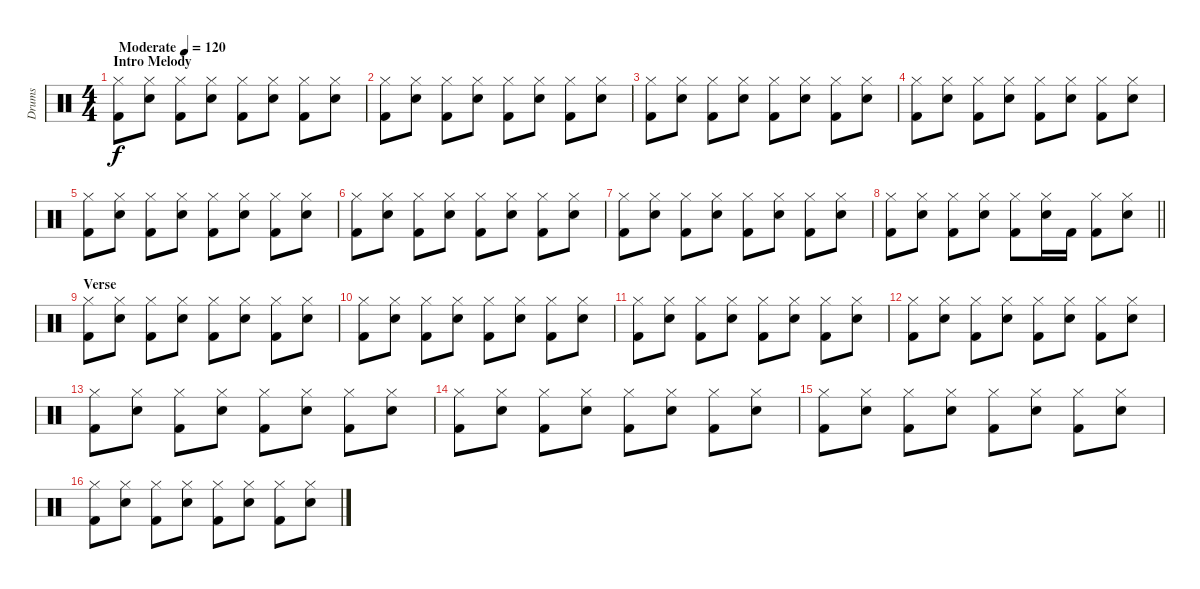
\track ("Drums" "Drums") {instrument percussion}
\staff {score}
\articulation defaults
\ts (4 4)
\section ("" "Intro Melody")
\tempo (120 "Moderate")
\clef neutral
\ks c
("Hi-Hat (closed)" "Kick (hit) 2").8{dy f} ("Hi-Hat (closed)" "Electric Snare (hit)").8 ("Hi-Hat (closed)" "Kick (hit) 2").8 ("Hi-Hat (closed)" "Electric Snare (hit)").8 ("Hi-Hat (closed)" "Kick (hit) 2").8 ("Hi-Hat (closed)" "Electric Snare (hit)").8 ("Hi-Hat (closed)" "Kick (hit) 2").8 ("Hi-Hat (closed)" "Electric Snare (hit)").8 |
("Hi-Hat (closed)" "Kick (hit) 2").8 ("Hi-Hat (closed)" "Electric Snare (hit)").8 ("Hi-Hat (closed)" "Kick (hit) 2").8 ("Hi-Hat (closed)" "Electric Snare (hit)").8 ("Hi-Hat (closed)" "Kick (hit) 2").8 ("Hi-Hat (closed)" "Electric Snare (hit)").8 ("Hi-Hat (closed)" "Kick (hit) 2").8 ("Hi-Hat (closed)" "Electric Snare (hit)").8 |
("Hi-Hat (closed)" "Kick (hit) 2").8 ("Hi-Hat (closed)" "Electric Snare (hit)").8 ("Hi-Hat (closed)" "Kick (hit) 2").8 ("Hi-Hat (closed)" "Electric Snare (hit)").8 ("Hi-Hat (closed)" "Kick (hit) 2").8 ("Hi-Hat (closed)" "Electric Snare (hit)").8 ("Hi-Hat (closed)" "Kick (hit) 2").8 ("Hi-Hat (closed)" "Electric Snare (hit)").8 |
("Hi-Hat (closed)" "Kick (hit) 2").8 ("Hi-Hat (closed)" "Electric Snare (hit)").8 ("Hi-Hat (closed)" "Kick (hit) 2").8 ("Hi-Hat (closed)" "Electric Snare (hit)").8 ("Hi-Hat (closed)" "Kick (hit) 2").8 ("Hi-Hat (closed)" "Electric Snare (hit)").8 ("Hi-Hat (closed)" "Kick (hit) 2").8 ("Hi-Hat (closed)" "Electric Snare (hit)").8 |
("Hi-Hat (closed)" "Kick (hit) 2").8 ("Hi-Hat (closed)" "Electric Snare (hit)").8 ("Hi-Hat (closed)" "Kick (hit) 2").8 ("Hi-Hat (closed)" "Electric Snare (hit)").8 ("Hi-Hat (closed)" "Kick (hit) 2").8 ("Hi-Hat (closed)" "Electric Snare (hit)").8 ("Hi-Hat (closed)" "Kick (hit) 2").8 ("Hi-Hat (closed)" "Electric Snare (hit)").8 |
("Hi-Hat (closed)" "Kick (hit) 2").8 ("Hi-Hat (closed)" "Electric Snare (hit)").8 ("Hi-Hat (closed)" "Kick (hit) 2").8 ("Hi-Hat (closed)" "Electric Snare (hit)").8 ("Hi-Hat (closed)" "Kick (hit) 2").8 ("Hi-Hat (closed)" "Electric Snare (hit)").8 ("Hi-Hat (closed)" "Kick (hit) 2").8 ("Hi-Hat (closed)" "Electric Snare (hit)").8 |
("Hi-Hat (closed)" "Kick (hit) 2").8 ("Hi-Hat (closed)" "Electric Snare (hit)").8 ("Hi-Hat (closed)" "Kick (hit) 2").8 ("Hi-Hat (closed)" "Electric Snare (hit)").8 ("Hi-Hat (closed)" "Kick (hit) 2").8 ("Hi-Hat (closed)" "Electric Snare (hit)").8 ("Hi-Hat (closed)" "Kick (hit) 2").8 ("Hi-Hat (closed)" "Electric Snare (hit)").8 |
\barLineRight lightlight
("Hi-Hat (closed)" "Kick (hit) 2").8 ("Hi-Hat (closed)" "Electric Snare (hit)").8 ("Hi-Hat (closed)" "Kick (hit) 2").8 ("Hi-Hat (closed)" "Electric Snare (hit)").8 ("Hi-Hat (closed)" "Kick (hit) 2").8 ("Hi-Hat (closed)" "Electric Snare (hit)").16 "Kick (hit) 2".16 ("Hi-Hat (closed)" "Kick (hit) 2").8 ("Hi-Hat (closed)" "Electric Snare (hit)").8 |
\section ("" "Verse")
("Hi-Hat (closed)" "Kick (hit) 2").8 ("Hi-Hat (closed)" "Electric Snare (hit)").8 ("Hi-Hat (closed)" "Kick (hit) 2").8 ("Hi-Hat (closed)" "Electric Snare (hit)").8 ("Hi-Hat (closed)" "Kick (hit) 2").8 ("Hi-Hat (closed)" "Electric Snare (hit)").8 ("Hi-Hat (closed)" "Kick (hit) 2").8 ("Hi-Hat (closed)" "Electric Snare (hit)").8 |
("Hi-Hat (closed)" "Kick (hit) 2").8 ("Hi-Hat (closed)" "Electric Snare (hit)").8 ("Hi-Hat (closed)" "Kick (hit) 2").8 ("Hi-Hat (closed)" "Electric Snare (hit)").8 ("Hi-Hat (closed)" "Kick (hit) 2").8 ("Hi-Hat (closed)" "Electric Snare (hit)").8 ("Hi-Hat (closed)" "Kick (hit) 2").8 ("Hi-Hat (closed)" "Electric Snare (hit)").8 |
("Hi-Hat (closed)" "Kick (hit) 2").8 ("Hi-Hat (closed)" "Electric Snare (hit)").8 ("Hi-Hat (closed)" "Kick (hit) 2").8 ("Hi-Hat (closed)" "Electric Snare (hit)").8 ("Hi-Hat (closed)" "Kick (hit) 2").8 ("Hi-Hat (closed)" "Electric Snare (hit)").8 ("Hi-Hat (closed)" "Kick (hit) 2").8 ("Hi-Hat (closed)" "Electric Snare (hit)").8 |
("Hi-Hat (closed)" "Kick (hit) 2").8 ("Hi-Hat (closed)" "Electric Snare (hit)").8 ("Hi-Hat (closed)" "Kick (hit) 2").8 ("Hi-Hat (closed)" "Electric Snare (hit)").8 ("Hi-Hat (closed)" "Kick (hit) 2").8 ("Hi-Hat (closed)" "Electric Snare (hit)").8 ("Hi-Hat (closed)" "Kick (hit) 2").8 ("Hi-Hat (closed)" "Electric Snare (hit)").8 |
("Hi-Hat (closed)" "Kick (hit) 2").8 ("Hi-Hat (closed)" "Electric Snare (hit)").8 ("Hi-Hat (closed)" "Kick (hit) 2").8 ("Hi-Hat (closed)" "Electric Snare (hit)").8 ("Hi-Hat (closed)" "Kick (hit) 2").8 ("Hi-Hat (closed)" "Electric Snare (hit)").8 ("Hi-Hat (closed)" "Kick (hit) 2").8 ("Hi-Hat (closed)" "Electric Snare (hit)").8 |
("Hi-Hat (closed)" "Kick (hit) 2").8 ("Hi-Hat (closed)" "Electric Snare (hit)").8 ("Hi-Hat (closed)" "Kick (hit) 2").8 ("Hi-Hat (closed)" "Electric Snare (hit)").8 ("Hi-Hat (closed)" "Kick (hit) 2").8 ("Hi-Hat (closed)" "Electric Snare (hit)").8 ("Hi-Hat (closed)" "Kick (hit) 2").8 ("Hi-Hat (closed)" "Electric Snare (hit)").8 |
("Hi-Hat (closed)" "Kick (hit) 2").8 ("Hi-Hat (closed)" "Electric Snare (hit)").8 ("Hi-Hat (closed)" "Kick (hit) 2").8 ("Hi-Hat (closed)" "Electric Snare (hit)").8 ("Hi-Hat (closed)" "Kick (hit) 2").8 ("Hi-Hat (closed)" "Electric Snare (hit)").8 ("Hi-Hat (closed)" "Kick (hit) 2").8 ("Hi-Hat (closed)" "Electric Snare (hit)").8 |
("Hi-Hat (closed)" "Kick (hit) 2").8 ("Hi-Hat (closed)" "Electric Snare (hit)").8 ("Hi-Hat (closed)" "Kick (hit) 2").8 ("Hi-Hat (closed)" "Electric Snare (hit)").8 ("Hi-Hat (closed)" "Kick (hit) 2").8 ("Hi-Hat (closed)" "Electric Snare (hit)").8 ("Hi-Hat (closed)" "Kick (hit) 2").8 ("Hi-Hat (closed)" "Electric Snare (hit)").8
